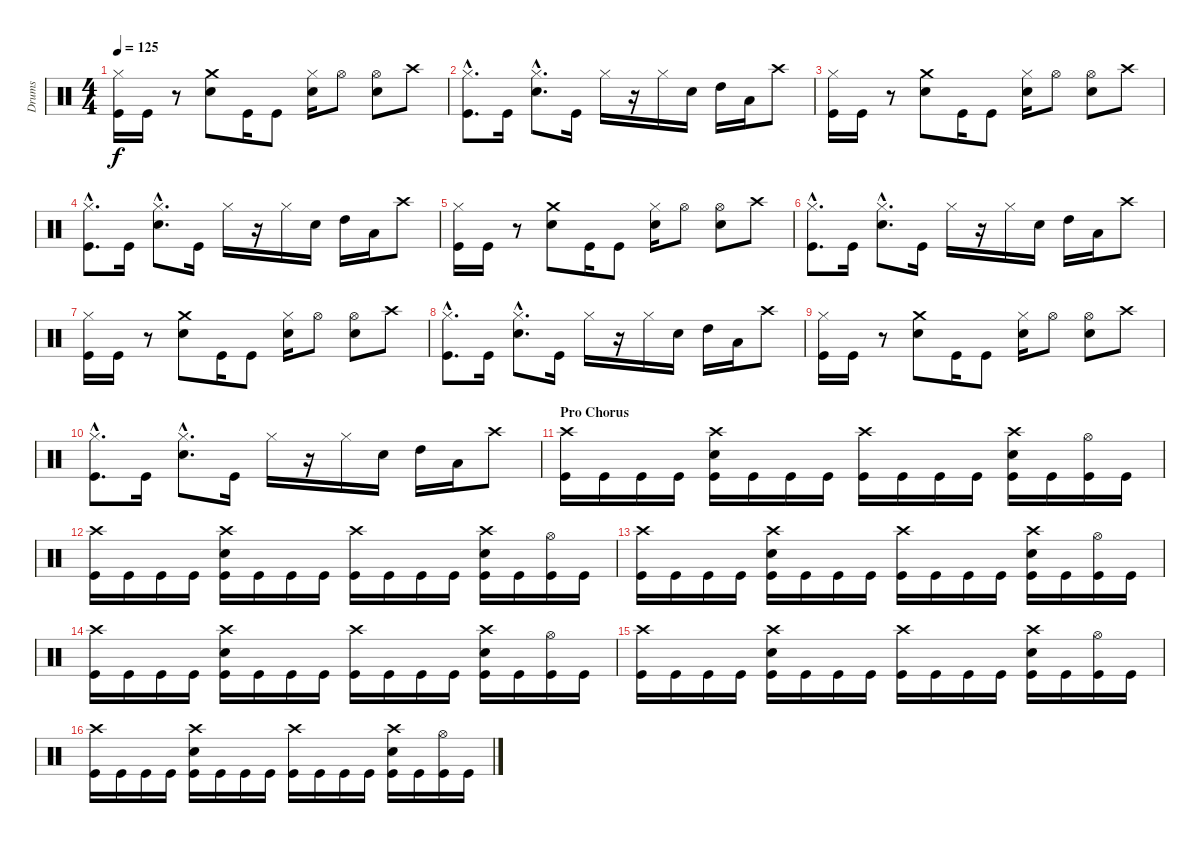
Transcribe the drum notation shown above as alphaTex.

\track ("Drums" "Drums") {instrument percussion}
\staff {score}
\articulation defaults
\ts (4 4)
\tempo 125
\clef neutral
\ks c
("Hi-Hat (closed)" "Kick (hit)").16{dy f} "Kick (hit)".16 r.8 ("Crash medium (hit)" "Electric Snare (hit)").8 "Kick (hit)".16 "Kick (hit)".8 ("Hi-Hat (closed)" "Electric Snare (hit)").16 "Hi-Hat (open)".8 ("Hi-Hat (open)" "Electric Snare (hit)").8 "Crash high (hit)".8 |
("Hi-Hat (closed)"{hac} "Kick (hit)"{hac}).8{d} "Kick (hit)".16 ("Hi-Hat (closed)"{hac} "Electric Snare (hit)"{hac}).8{d} "Kick (hit)".16 "Hi-Hat (closed)".16 r.16 "Hi-Hat (closed)".16 "Electric Snare (hit)".16 "High Tom (hit)".16 "Low Tom (hit)".16 "Crash high (hit)".8 |
("Hi-Hat (closed)" "Kick (hit)").16 "Kick (hit)".16 r.8 ("Crash medium (hit)" "Electric Snare (hit)").8 "Kick (hit)".16 "Kick (hit)".8 ("Hi-Hat (closed)" "Electric Snare (hit)").16 "Hi-Hat (open)".8 ("Hi-Hat (open)" "Electric Snare (hit)").8 "Crash high (hit)".8 |
("Hi-Hat (closed)"{hac} "Kick (hit)"{hac}).8{d} "Kick (hit)".16 ("Hi-Hat (closed)"{hac} "Electric Snare (hit)"{hac}).8{d} "Kick (hit)".16 "Hi-Hat (closed)".16 r.16 "Hi-Hat (closed)".16 "Electric Snare (hit)".16 "High Tom (hit)".16 "Low Tom (hit)".16 "Crash high (hit)".8 |
("Hi-Hat (closed)" "Kick (hit)").16 "Kick (hit)".16 r.8 ("Crash medium (hit)" "Electric Snare (hit)").8 "Kick (hit)".16 "Kick (hit)".8 ("Hi-Hat (closed)" "Electric Snare (hit)").16 "Hi-Hat (open)".8 ("Hi-Hat (open)" "Electric Snare (hit)").8 "Crash high (hit)".8 |
("Hi-Hat (closed)"{hac} "Kick (hit)"{hac}).8{d} "Kick (hit)".16 ("Hi-Hat (closed)"{hac} "Electric Snare (hit)"{hac}).8{d} "Kick (hit)".16 "Hi-Hat (closed)".16 r.16 "Hi-Hat (closed)".16 "Electric Snare (hit)".16 "High Tom (hit)".16 "Low Tom (hit)".16 "Crash high (hit)".8 |
("Hi-Hat (closed)" "Kick (hit)").16 "Kick (hit)".16 r.8 ("Crash medium (hit)" "Electric Snare (hit)").8 "Kick (hit)".16 "Kick (hit)".8 ("Hi-Hat (closed)" "Electric Snare (hit)").16 "Hi-Hat (open)".8 ("Hi-Hat (open)" "Electric Snare (hit)").8 "Crash high (hit)".8 |
("Hi-Hat (closed)"{hac} "Kick (hit)"{hac}).8{d} "Kick (hit)".16 ("Hi-Hat (closed)"{hac} "Electric Snare (hit)"{hac}).8{d} "Kick (hit)".16 "Hi-Hat (closed)".16 r.16 "Hi-Hat (closed)".16 "Electric Snare (hit)".16 "High Tom (hit)".16 "Low Tom (hit)".16 "Crash high (hit)".8 |
("Hi-Hat (closed)" "Kick (hit)").16 "Kick (hit)".16 r.8 ("Crash medium (hit)" "Electric Snare (hit)").8 "Kick (hit)".16 "Kick (hit)".8 ("Hi-Hat (closed)" "Electric Snare (hit)").16 "Hi-Hat (open)".8 ("Hi-Hat (open)" "Electric Snare (hit)").8 "Crash high (hit)".8 |
("Hi-Hat (closed)"{hac} "Kick (hit)"{hac}).8{d} "Kick (hit)".16 ("Hi-Hat (closed)"{hac} "Electric Snare (hit)"{hac}).8{d} "Kick (hit)".16 "Hi-Hat (closed)".16 r.16 "Hi-Hat (closed)".16 "Electric Snare (hit)".16 "High Tom (hit)".16 "Low Tom (hit)".16 "Crash high (hit)".8 |
\section ("" "Pro Chorus")
("Crash high (hit)" "Kick (hit)").16 "Kick (hit)".16 "Kick (hit)".16 "Kick (hit)".16 ("Crash high (hit)" "Kick (hit)" "Electric Snare (hit)").16 "Kick (hit)".16 "Kick (hit)".16 "Kick (hit)".16 ("Crash high (hit)" "Kick (hit)").16 "Kick (hit)".16 "Kick (hit)".16 "Kick (hit)".16 ("Crash high (hit)" "Kick (hit)" "Electric Snare (hit)").16 "Kick (hit)".16 ("Hi-Hat (open)" "Kick (hit)").16 "Kick (hit)".16 |
("Crash high (hit)" "Kick (hit)").16 "Kick (hit)".16 "Kick (hit)".16 "Kick (hit)".16 ("Crash high (hit)" "Kick (hit)" "Electric Snare (hit)").16 "Kick (hit)".16 "Kick (hit)".16 "Kick (hit)".16 ("Crash high (hit)" "Kick (hit)").16 "Kick (hit)".16 "Kick (hit)".16 "Kick (hit)".16 ("Crash high (hit)" "Kick (hit)" "Electric Snare (hit)").16 "Kick (hit)".16 ("Hi-Hat (open)" "Kick (hit)").16 "Kick (hit)".16 |
("Crash high (hit)" "Kick (hit)").16 "Kick (hit)".16 "Kick (hit)".16 "Kick (hit)".16 ("Crash high (hit)" "Kick (hit)" "Electric Snare (hit)").16 "Kick (hit)".16 "Kick (hit)".16 "Kick (hit)".16 ("Crash high (hit)" "Kick (hit)").16 "Kick (hit)".16 "Kick (hit)".16 "Kick (hit)".16 ("Crash high (hit)" "Kick (hit)" "Electric Snare (hit)").16 "Kick (hit)".16 ("Hi-Hat (open)" "Kick (hit)").16 "Kick (hit)".16 |
("Crash high (hit)" "Kick (hit)").16 "Kick (hit)".16 "Kick (hit)".16 "Kick (hit)".16 ("Crash high (hit)" "Kick (hit)" "Electric Snare (hit)").16 "Kick (hit)".16 "Kick (hit)".16 "Kick (hit)".16 ("Crash high (hit)" "Kick (hit)").16 "Kick (hit)".16 "Kick (hit)".16 "Kick (hit)".16 ("Crash high (hit)" "Kick (hit)" "Electric Snare (hit)").16 "Kick (hit)".16 ("Hi-Hat (open)" "Kick (hit)").16 "Kick (hit)".16 |
("Crash high (hit)" "Kick (hit)").16 "Kick (hit)".16 "Kick (hit)".16 "Kick (hit)".16 ("Crash high (hit)" "Kick (hit)" "Electric Snare (hit)").16 "Kick (hit)".16 "Kick (hit)".16 "Kick (hit)".16 ("Crash high (hit)" "Kick (hit)").16 "Kick (hit)".16 "Kick (hit)".16 "Kick (hit)".16 ("Crash high (hit)" "Kick (hit)" "Electric Snare (hit)").16 "Kick (hit)".16 ("Hi-Hat (open)" "Kick (hit)").16 "Kick (hit)".16 |
("Crash high (hit)" "Kick (hit)").16 "Kick (hit)".16 "Kick (hit)".16 "Kick (hit)".16 ("Crash high (hit)" "Kick (hit)" "Electric Snare (hit)").16 "Kick (hit)".16 "Kick (hit)".16 "Kick (hit)".16 ("Crash high (hit)" "Kick (hit)").16 "Kick (hit)".16 "Kick (hit)".16 "Kick (hit)".16 ("Crash high (hit)" "Kick (hit)" "Electric Snare (hit)").16 "Kick (hit)".16 ("Hi-Hat (open)" "Kick (hit)").16 "Kick (hit)".16
